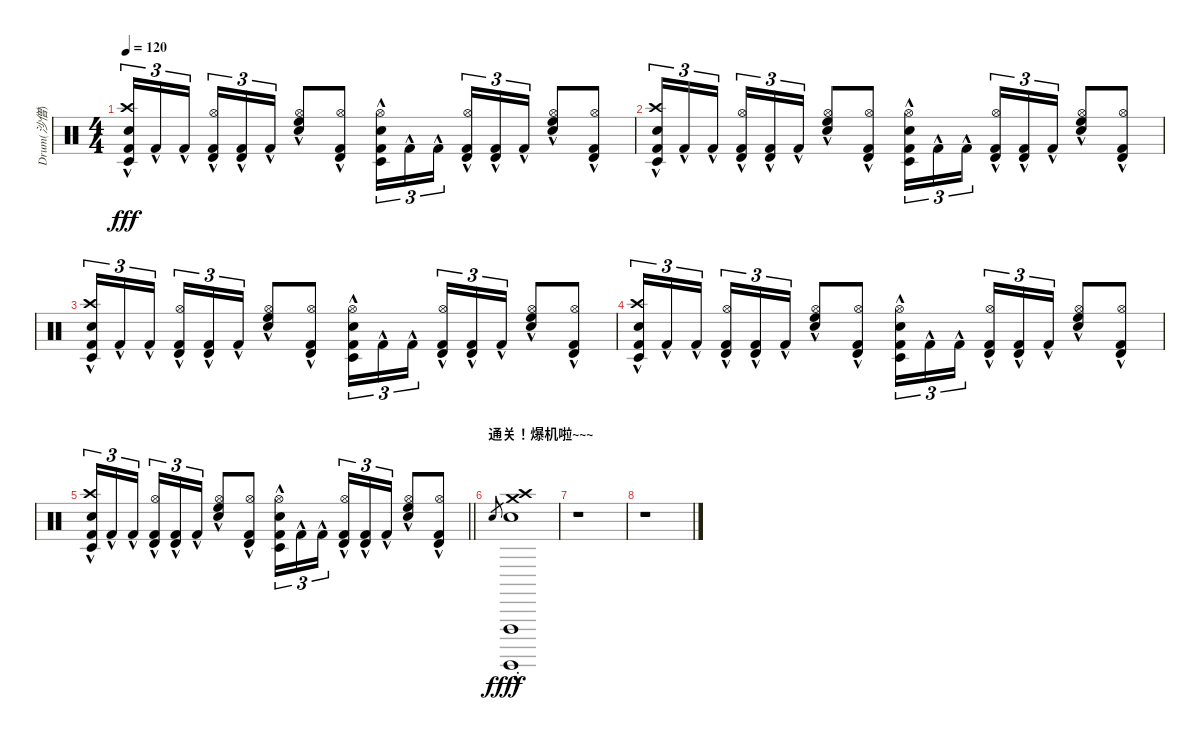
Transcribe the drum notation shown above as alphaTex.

\track ("Drum(沙僧)" "Drum(沙僧)") {instrument percussion}
\staff {score}
\articulation defaults
\ts (4 4)
\tempo 120
\clef neutral
\ks c
("Kick (hit) 2"{hac} "Snare (hit) 2"{hac} "Crash high (hit)" "Timbale low (hit)").16{tu (3 2) dy fff} "Kick (hit) 2"{hac}.16{tu (3 2)} "Kick (hit) 2"{hac}.16{tu (3 2) beam splitsecondary} ("Kick (hit) 2"{hac} "Hi-Hat (open)" "Timbale high (hit)").16{tu (3 2)} ("Kick (hit) 2"{hac} "Timbale high (hit)").16{tu (3 2)} "Kick (hit) 2"{hac}.16{tu (3 2)} ("Snare (hit) 2"{hac} "Hi-Hat (open)" "High Floor Tom (hit)"{hac}).8 ("Kick (hit) 2"{hac} "Hi-Hat (open)" "Timbale high (hit)").8 ("Kick (hit) 2" "Snare (hit) 2"{hac} "Hi-Hat (open)" "Timbale low (hit)").16{tu (3 2)} "Kick (hit) 2"{hac}.16{tu (3 2)} "Kick (hit) 2"{hac}.16{tu (3 2) beam splitsecondary} ("Kick (hit) 2"{hac} "Hi-Hat (open)" "Timbale high (hit)").16{tu (3 2)} ("Kick (hit) 2"{hac} "Timbale high (hit)").16{tu (3 2)} "Kick (hit) 2"{hac}.16{tu (3 2)} ("Snare (hit) 2"{hac} "Hi-Hat (open)" "High Floor Tom (hit)"{hac}).8 ("Kick (hit) 2"{hac} "Hi-Hat (open)" "Timbale high (hit)").8 |
("Kick (hit) 2"{hac} "Snare (hit) 2"{hac} "Crash high (hit)" "Timbale low (hit)").16{tu (3 2)} "Kick (hit) 2"{hac}.16{tu (3 2)} "Kick (hit) 2"{hac}.16{tu (3 2) beam splitsecondary} ("Kick (hit) 2"{hac} "Hi-Hat (open)" "Timbale high (hit)").16{tu (3 2)} ("Kick (hit) 2"{hac} "Timbale high (hit)").16{tu (3 2)} "Kick (hit) 2"{hac}.16{tu (3 2)} ("Snare (hit) 2"{hac} "Hi-Hat (open)" "High Floor Tom (hit)"{hac}).8 ("Kick (hit) 2"{hac} "Hi-Hat (open)" "Timbale high (hit)").8 ("Kick (hit) 2" "Snare (hit) 2"{hac} "Hi-Hat (open)" "Timbale low (hit)").16{tu (3 2)} "Kick (hit) 2"{hac}.16{tu (3 2)} "Kick (hit) 2"{hac}.16{tu (3 2) beam splitsecondary} ("Kick (hit) 2"{hac} "Hi-Hat (open)" "Timbale high (hit)").16{tu (3 2)} ("Kick (hit) 2"{hac} "Timbale high (hit)").16{tu (3 2)} "Kick (hit) 2"{hac}.16{tu (3 2)} ("Snare (hit) 2"{hac} "Hi-Hat (open)" "High Floor Tom (hit)"{hac}).8 ("Kick (hit) 2"{hac} "Hi-Hat (open)" "Timbale high (hit)").8 |
("Kick (hit) 2"{hac} "Snare (hit) 2"{hac} "Crash high (hit)" "Timbale low (hit)").16{tu (3 2)} "Kick (hit) 2"{hac}.16{tu (3 2)} "Kick (hit) 2"{hac}.16{tu (3 2) beam splitsecondary} ("Kick (hit) 2"{hac} "Hi-Hat (open)" "Timbale high (hit)").16{tu (3 2)} ("Kick (hit) 2"{hac} "Timbale high (hit)").16{tu (3 2)} "Kick (hit) 2"{hac}.16{tu (3 2)} ("Snare (hit) 2"{hac} "Hi-Hat (open)" "High Floor Tom (hit)"{hac}).8 ("Kick (hit) 2"{hac} "Hi-Hat (open)" "Timbale high (hit)").8 ("Kick (hit) 2" "Snare (hit) 2"{hac} "Hi-Hat (open)" "Timbale low (hit)").16{tu (3 2)} "Kick (hit) 2"{hac}.16{tu (3 2)} "Kick (hit) 2"{hac}.16{tu (3 2) beam splitsecondary} ("Kick (hit) 2"{hac} "Hi-Hat (open)" "Timbale high (hit)").16{tu (3 2)} ("Kick (hit) 2"{hac} "Timbale high (hit)").16{tu (3 2)} "Kick (hit) 2"{hac}.16{tu (3 2)} ("Snare (hit) 2"{hac} "Hi-Hat (open)" "High Floor Tom (hit)"{hac}).8 ("Kick (hit) 2"{hac} "Hi-Hat (open)" "Timbale high (hit)").8 |
("Kick (hit) 2"{hac} "Snare (hit) 2"{hac} "Crash high (hit)" "Timbale low (hit)").16{tu (3 2)} "Kick (hit) 2"{hac}.16{tu (3 2)} "Kick (hit) 2"{hac}.16{tu (3 2) beam splitsecondary} ("Kick (hit) 2"{hac} "Hi-Hat (open)" "Timbale high (hit)").16{tu (3 2)} ("Kick (hit) 2"{hac} "Timbale high (hit)").16{tu (3 2)} "Kick (hit) 2"{hac}.16{tu (3 2)} ("Snare (hit) 2"{hac} "Hi-Hat (open)" "High Floor Tom (hit)"{hac}).8 ("Kick (hit) 2"{hac} "Hi-Hat (open)" "Timbale high (hit)").8 ("Kick (hit) 2" "Snare (hit) 2"{hac} "Hi-Hat (open)" "Timbale low (hit)").16{tu (3 2)} "Kick (hit) 2"{hac}.16{tu (3 2)} "Kick (hit) 2"{hac}.16{tu (3 2) beam splitsecondary} ("Kick (hit) 2"{hac} "Hi-Hat (open)" "Timbale high (hit)").16{tu (3 2)} ("Kick (hit) 2"{hac} "Timbale high (hit)").16{tu (3 2)} "Kick (hit) 2"{hac}.16{tu (3 2)} ("Snare (hit) 2"{hac} "Hi-Hat (open)" "High Floor Tom (hit)"{hac}).8 ("Kick (hit) 2"{hac} "Hi-Hat (open)" "Timbale high (hit)").8 |
\barLineRight lightlight
("Kick (hit) 2"{hac} "Snare (hit) 2"{hac} "Crash high (hit)" "Timbale low (hit)").16{tu (3 2)} "Kick (hit) 2"{hac}.16{tu (3 2)} "Kick (hit) 2"{hac}.16{tu (3 2) beam splitsecondary} ("Kick (hit) 2"{hac} "Hi-Hat (open)" "Timbale high (hit)").16{tu (3 2)} ("Kick (hit) 2"{hac} "Timbale high (hit)").16{tu (3 2)} "Kick (hit) 2"{hac}.16{tu (3 2)} ("Snare (hit) 2"{hac} "Hi-Hat (open)" "High Floor Tom (hit)"{hac}).8 ("Kick (hit) 2"{hac} "Hi-Hat (open)" "Timbale high (hit)").8 ("Kick (hit) 2" "Snare (hit) 2"{hac} "Hi-Hat (open)" "Timbale low (hit)").16{tu (3 2)} "Kick (hit) 2"{hac}.16{tu (3 2)} "Kick (hit) 2"{hac}.16{tu (3 2) beam splitsecondary} ("Kick (hit) 2"{hac} "Hi-Hat (open)" "Timbale high (hit)").16{tu (3 2)} ("Kick (hit) 2"{hac} "Timbale high (hit)").16{tu (3 2)} "Kick (hit) 2"{hac}.16{tu (3 2)} ("Snare (hit) 2"{hac} "Hi-Hat (open)" "High Floor Tom (hit)"{hac}).8 ("Kick (hit) 2"{hac} "Hi-Hat (open)" "Timbale high (hit)").8 |
\section ("" "通关！爆机啦~~~")
"Snare (hit) 2".8{gr dy f} ("Crash medium (hit)" "Snare (hit) 2" "Surdo (hit)"{hac st} "Vibraslap (hit)" "Crash high (hit)").1{dy fff} |
r.1 |
r.1
